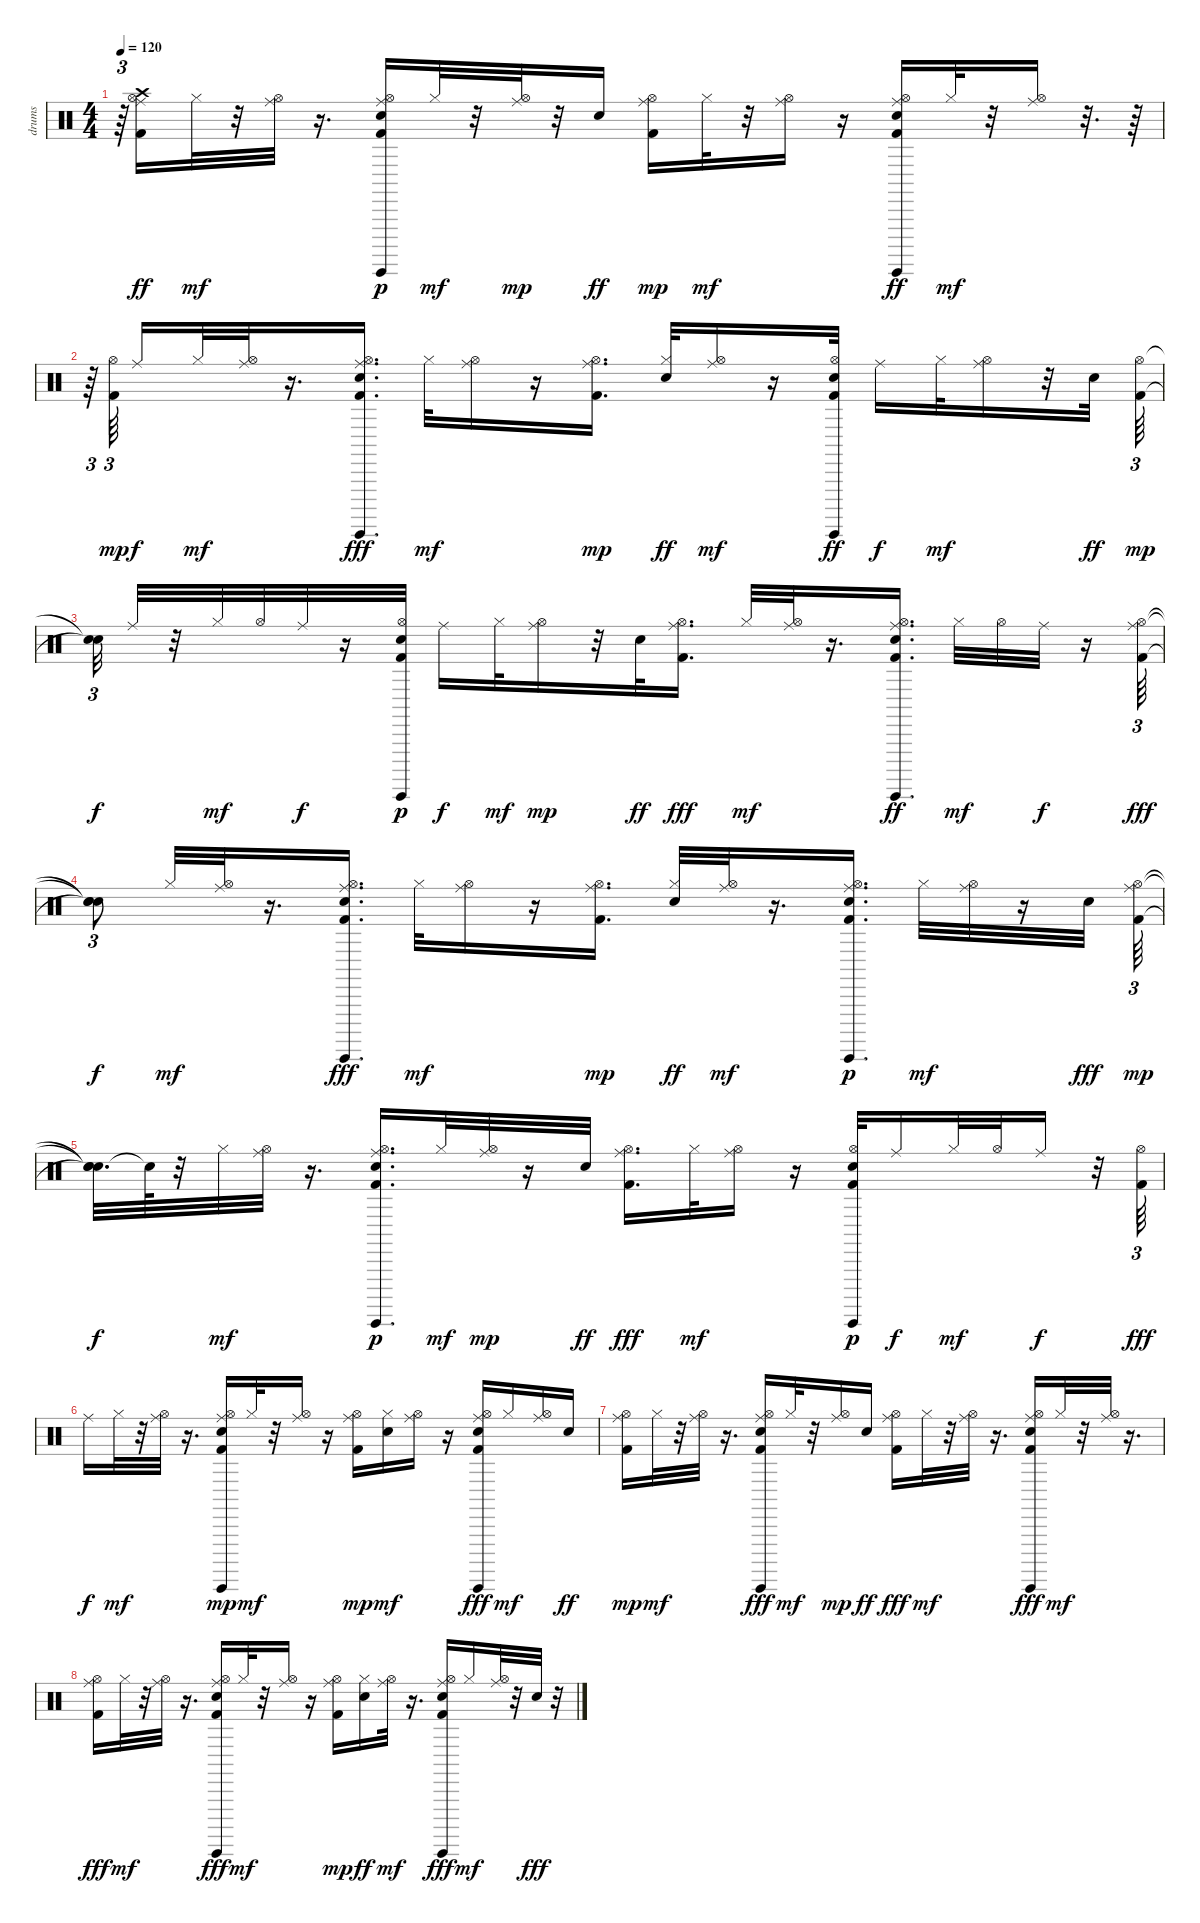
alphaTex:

\track ("drums                               " "drums     ") {instrument percussion}
\staff {score}
\articulation defaults
\ts (4 4)
\tempo 120
\clef neutral
\ks c
r.64{tu (3 2) dy fff} ("Kick (hit) 2" "Ride (middle)" "Hi-Hat (open)" "Crash high (hit)").16{dy ff} "Hi-Hat (closed)".32{dy mf} r.32 ("Ride (middle)" "Hi-Hat (open)").32 r.16{d} ("Electric Snare (hit)" "Kick (hit) 2" "Guiro (hit)" "Hi-Hat (open)" "Ride (middle)").16{dy p} "Hi-Hat (closed)".32{dy mf} r.32 ("Ride (middle)" "Hi-Hat (open)").32{dy mp} r.32 "Electric Snare (hit)".16{dy ff} ("Kick (hit) 2" "Hi-Hat (open)" "Ride (middle)").16{dy mp} "Hi-Hat (closed)".32{dy mf} r.32 ("Ride (middle)" "Hi-Hat (open)").16 r.16 ("Hi-Hat (open)" "Kick (hit) 2" "Electric Snare (hit)" "Guiro (hit)" "Ride (middle)").16{dy ff} "Hi-Hat (closed)".32{dy mf} r.32 ("Hi-Hat (open)" "Ride (middle)").16 r.32{d} r.64 |
r.64{tu (3 2)} ("Kick (hit) 2" "Hi-Hat (open)").64{tu (3 2) dy mp beam splitsecondary} "Ride (middle)".16{dy f} "Hi-Hat (closed)".32{dy mf} ("Hi-Hat (open)" "Ride (middle)").32 r.16{d} ("Guiro (hit)" "Electric Snare (hit)" "Hi-Hat (open)" "Kick (hit) 2" "Ride (middle)").16{d dy fff} "Hi-Hat (closed)".32{dy mf} ("Hi-Hat (open)" "Ride (middle)").16 r.16 ("Ride (middle)" "Kick (hit) 2" "Hi-Hat (open)").16{d dy mp} ("Hi-Hat (closed)" "Electric Snare (hit)").32{dy ff} ("Hi-Hat (open)" "Ride (middle)").16{dy mf} r.16 ("Guiro (hit)" "Kick (hit) 2" "Hi-Hat (open)" "Electric Snare (hit)").32{dy ff} "Ride (middle)".16{dy f} "Hi-Hat (closed)".32{dy mf} ("Hi-Hat (open)" "Ride (middle)").16 r.32 "Electric Snare (hit)".32{dy ff} ("Kick (hit) 2" "Hi-Hat (open)").64{tu (3 2) dy mp} |
("Snare (hit)"{t} "Snare (hit)"{t}).32{tu (3 2) dy f} "Ride (middle)".32 r.32 "Hi-Hat (closed)".32{dy mf} "Hi-Hat (open)".32 "Ride (middle)".32{dy f} r.16 ("Kick (hit) 2" "Electric Snare (hit)" "Guiro (hit)" "Hi-Hat (open)").32{dy p} "Ride (middle)".16{dy f} "Hi-Hat (closed)".32{dy mf} ("Hi-Hat (open)" "Ride (middle)").16{dy mp} r.32 "Electric Snare (hit)".32{dy ff} ("Ride (middle)" "Hi-Hat (open)" "Kick (hit) 2").16{d dy fff} "Hi-Hat (closed)".32{dy mf} ("Hi-Hat (open)" "Ride (middle)").32 r.16{d} ("Kick (hit) 2" "Hi-Hat (open)" "Guiro (hit)" "Electric Snare (hit)" "Ride (middle)").16{d dy ff} "Hi-Hat (closed)".32{dy mf} "Hi-Hat (open)".32 "Ride (middle)".32{dy f} r.16 ("Hi-Hat (open)" "Kick (hit) 2" "Ride (middle)").64{tu (3 2) dy fff} |
("Snare (hit)"{t} "Snare (hit)"{t} "Snare (hit)"{t}).8{tu (3 2) dy f} "Hi-Hat (closed)".32{dy mf} ("Ride (middle)" "Hi-Hat (open)").32 r.16{d} ("Kick (hit) 2" "Hi-Hat (open)" "Electric Snare (hit)" "Guiro (hit)" "Ride (middle)").16{d dy fff} "Hi-Hat (closed)".32{dy mf} ("Ride (middle)" "Hi-Hat (open)").16 r.16 ("Ride (middle)" "Kick (hit) 2" "Hi-Hat (open)").16{d dy mp} ("Hi-Hat (closed)" "Electric Snare (hit)").32{dy ff} ("Ride (middle)" "Hi-Hat (open)").32{dy mf} r.16{d} ("Ride (middle)" "Kick (hit) 2" "Electric Snare (hit)" "Hi-Hat (open)" "Guiro (hit)").16{d dy p} "Hi-Hat (closed)".32{dy mf} ("Ride (middle)" "Hi-Hat (open)").32 r.16 "Electric Snare (hit)".32{dy fff} ("Kick (hit) 2" "Ride (middle)" "Hi-Hat (open)").64{tu (3 2) dy mp} |
("Snare (hit)"{t} "Snare (hit)"{t} "Snare (hit)"{t}).32{d dy f} "Snare (hit)"{t}.64 r.32 "Hi-Hat (closed)".32{dy mf} ("Ride (middle)" "Hi-Hat (open)").32 r.16{d} ("Kick (hit) 2" "Electric Snare (hit)" "Guiro (hit)" "Hi-Hat (open)" "Ride (middle)").16{d dy p} "Hi-Hat (closed)".32{dy mf} ("Ride (middle)" "Hi-Hat (open)").32{dy mp} r.16 "Electric Snare (hit)".32{dy ff} ("Hi-Hat (open)" "Kick (hit) 2" "Ride (middle)").16{d dy fff} "Hi-Hat (closed)".32{dy mf} ("Ride (middle)" "Hi-Hat (open)").16 r.16 ("Kick (hit) 2" "Electric Snare (hit)" "Hi-Hat (open)" "Guiro (hit)").32{dy p} "Ride (middle)".16{dy f} "Hi-Hat (closed)".32{dy mf} "Hi-Hat (open)".32 "Ride (middle)".16{dy f} r.32 ("Hi-Hat (open)" "Kick (hit) 2").64{tu (3 2) dy fff} |
"Ride (middle)".16{dy f} "Hi-Hat (closed)".32{dy mf} r.32 ("Hi-Hat (open)" "Ride (middle)").32 r.16{d} ("Guiro (hit)" "Electric Snare (hit)" "Kick (hit) 2" "Hi-Hat (open)" "Ride (middle)").16{dy mp} "Hi-Hat (closed)".32{dy mf} r.32 ("Hi-Hat (open)" "Ride (middle)").16 r.16 ("Ride (middle)" "Kick (hit) 2" "Hi-Hat (open)").16{dy mp} ("Electric Snare (hit)" "Hi-Hat (closed)").16{dy mf} ("Hi-Hat (open)" "Ride (middle)").16 r.16 ("Guiro (hit)" "Electric Snare (hit)" "Hi-Hat (open)" "Kick (hit) 2" "Ride (middle)").16{dy fff} "Hi-Hat (closed)".16{dy mf} ("Hi-Hat (open)" "Ride (middle)").16 "Electric Snare (hit)".16{dy ff} |
("Kick (hit) 2" "Hi-Hat (open)" "Ride (middle)").16{dy mp} "Hi-Hat (closed)".32{dy mf} r.32 ("Hi-Hat (open)" "Ride (middle)").32 r.16{d} ("Guiro (hit)" "Electric Snare (hit)" "Hi-Hat (open)" "Kick (hit) 2" "Ride (middle)").16{dy fff} "Hi-Hat (closed)".32{dy mf} r.32 ("Hi-Hat (open)" "Ride (middle)").16{dy mp} "Electric Snare (hit)".16{dy ff} ("Ride (middle)" "Hi-Hat (open)" "Kick (hit) 2").16{dy fff} "Hi-Hat (closed)".32{dy mf} r.32 ("Hi-Hat (open)" "Ride (middle)").32 r.16{d} ("Hi-Hat (open)" "Electric Snare (hit)" "Kick (hit) 2" "Guiro (hit)" "Ride (middle)").16{dy fff} "Hi-Hat (closed)".32{dy mf} r.32 ("Hi-Hat (open)" "Ride (middle)").32 r.16{d} |
("Hi-Hat (open)" "Kick (hit) 2" "Ride (middle)").16{dy fff} "Hi-Hat (closed)".32{dy mf} r.32 ("Ride (middle)" "Hi-Hat (open)").32 r.16{d} ("Hi-Hat (open)" "Electric Snare (hit)" "Guiro (hit)" "Kick (hit) 2" "Ride (middle)").16{dy fff} "Hi-Hat (closed)".32{dy mf} r.32 ("Ride (middle)" "Hi-Hat (open)").16 r.16 ("Ride (middle)" "Kick (hit) 2" "Hi-Hat (open)").16{dy mp} ("Hi-Hat (closed)" "Electric Snare (hit)").16{dy ff} ("Ride (middle)" "Hi-Hat (open)").32{dy mf} r.16{d} ("Ride (middle)" "Hi-Hat (open)" "Electric Snare (hit)" "Guiro (hit)" "Kick (hit) 2").16{dy fff} "Hi-Hat (closed)".16{dy mf} ("Ride (middle)" "Hi-Hat (open)").32 r.32 "Electric Snare (hit)".32{dy fff} r.32
